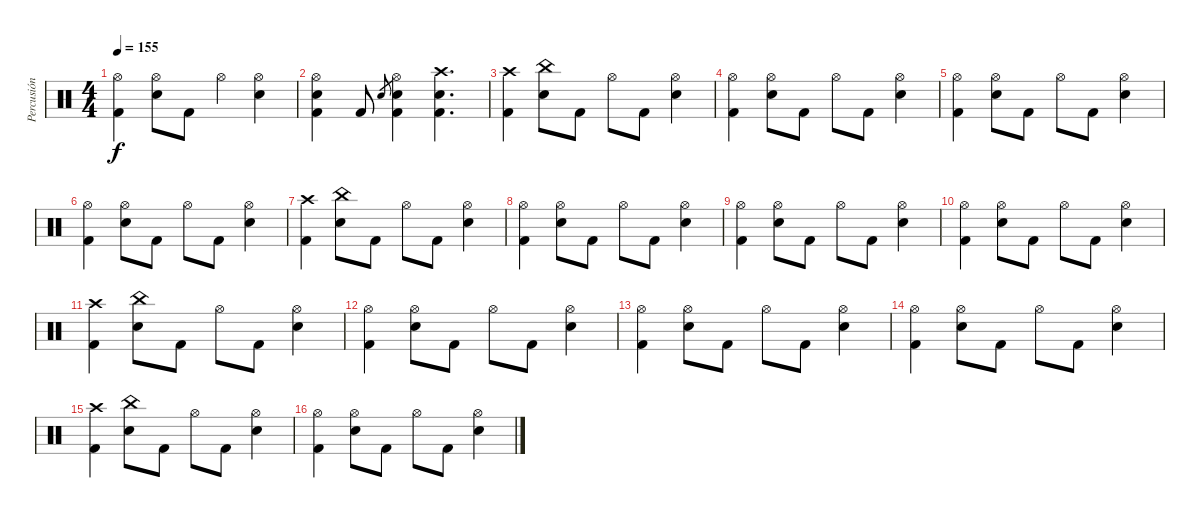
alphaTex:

\track ("Percusión" "Percusión") {instrument percussion}
\staff {score}
\articulation defaults
\ts (4 4)
\tempo 155
\clef neutral
\ks c
("Hi-Hat (open)" "Kick (hit) 2").4{dy f} ("Hi-Hat (open)" "Electric Snare (hit)").8 "Kick (hit) 2".8 "Hi-Hat (open)".4 ("Hi-Hat (open)" "Electric Snare (hit)").4 |
("Hi-Hat (open)" "Electric Snare (hit)" "Kick (hit) 2").4 "Kick (hit) 2".8 "Electric Snare (hit)".8{gr} ("Hi-Hat (open)" "Electric Snare (hit)" "Kick (hit) 2").4 ("Crash high (hit)" "Electric Snare (hit)" "Kick (hit) 2").4{d} |
("Crash high (hit)" "Kick (hit) 2").4 ("China (hit)" "Electric Snare (hit)").8 "Kick (hit) 2".8 "Hi-Hat (open)".8 "Kick (hit) 2".8 ("Hi-Hat (open)" "Electric Snare (hit)").4 |
("Hi-Hat (open)" "Kick (hit) 2").4 ("Hi-Hat (open)" "Electric Snare (hit)").8 "Kick (hit) 2".8 "Hi-Hat (open)".8 "Kick (hit) 2".8 ("Hi-Hat (open)" "Electric Snare (hit)").4 |
("Hi-Hat (open)" "Kick (hit) 2").4 ("Hi-Hat (open)" "Electric Snare (hit)").8 "Kick (hit) 2".8 "Hi-Hat (open)".8 "Kick (hit) 2".8 ("Hi-Hat (open)" "Electric Snare (hit)").4 |
("Hi-Hat (open)" "Kick (hit) 2").4 ("Hi-Hat (open)" "Electric Snare (hit)").8 "Kick (hit) 2".8 "Hi-Hat (open)".8 "Kick (hit) 2".8 ("Hi-Hat (open)" "Electric Snare (hit)").4 |
("Crash high (hit)" "Kick (hit) 2").4 ("China (hit)" "Electric Snare (hit)").8 "Kick (hit) 2".8 "Hi-Hat (open)".8 "Kick (hit) 2".8 ("Hi-Hat (open)" "Electric Snare (hit)").4 |
("Hi-Hat (open)" "Kick (hit) 2").4 ("Hi-Hat (open)" "Electric Snare (hit)").8 "Kick (hit) 2".8 "Hi-Hat (open)".8 "Kick (hit) 2".8 ("Hi-Hat (open)" "Electric Snare (hit)").4 |
("Hi-Hat (open)" "Kick (hit) 2").4 ("Hi-Hat (open)" "Electric Snare (hit)").8 "Kick (hit) 2".8 "Hi-Hat (open)".8 "Kick (hit) 2".8 ("Hi-Hat (open)" "Electric Snare (hit)").4 |
("Hi-Hat (open)" "Kick (hit) 2").4 ("Hi-Hat (open)" "Electric Snare (hit)").8 "Kick (hit) 2".8 "Hi-Hat (open)".8 "Kick (hit) 2".8 ("Hi-Hat (open)" "Electric Snare (hit)").4 |
("Crash high (hit)" "Kick (hit) 2").4 ("China (hit)" "Electric Snare (hit)").8 "Kick (hit) 2".8 "Hi-Hat (open)".8 "Kick (hit) 2".8 ("Hi-Hat (open)" "Electric Snare (hit)").4 |
("Hi-Hat (open)" "Kick (hit) 2").4 ("Hi-Hat (open)" "Electric Snare (hit)").8 "Kick (hit) 2".8 "Hi-Hat (open)".8 "Kick (hit) 2".8 ("Hi-Hat (open)" "Electric Snare (hit)").4 |
("Hi-Hat (open)" "Kick (hit) 2").4 ("Hi-Hat (open)" "Electric Snare (hit)").8 "Kick (hit) 2".8 "Hi-Hat (open)".8 "Kick (hit) 2".8 ("Hi-Hat (open)" "Electric Snare (hit)").4 |
("Hi-Hat (open)" "Kick (hit) 2").4 ("Hi-Hat (open)" "Electric Snare (hit)").8 "Kick (hit) 2".8 "Hi-Hat (open)".8 "Kick (hit) 2".8 ("Hi-Hat (open)" "Electric Snare (hit)").4 |
("Crash high (hit)" "Kick (hit) 2").4 ("China (hit)" "Electric Snare (hit)").8 "Kick (hit) 2".8 "Hi-Hat (open)".8 "Kick (hit) 2".8 ("Hi-Hat (open)" "Electric Snare (hit)").4 |
("Hi-Hat (open)" "Kick (hit) 2").4 ("Hi-Hat (open)" "Electric Snare (hit)").8 "Kick (hit) 2".8 "Hi-Hat (open)".8 "Kick (hit) 2".8 ("Hi-Hat (open)" "Electric Snare (hit)").4
